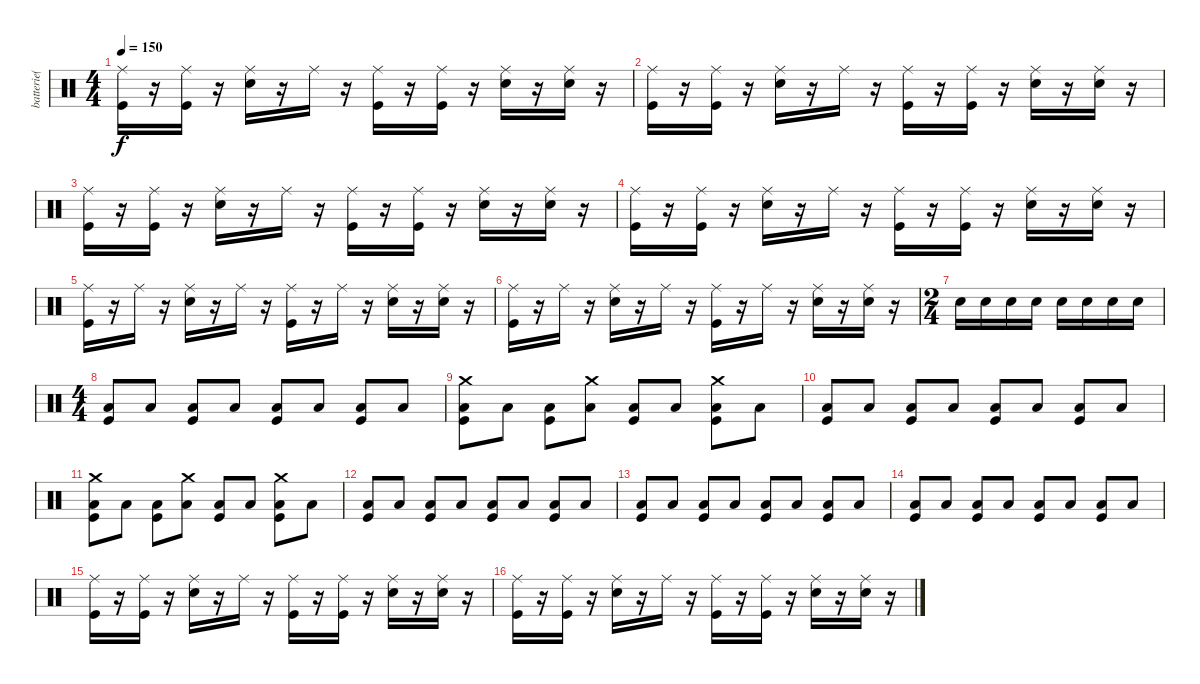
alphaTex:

\track ("batterie(  Mark Cain )" "batterie( ") {instrument percussion}
\staff {score}
\articulation defaults
\ts (4 4)
\tempo 150
\clef neutral
\ks c
("Ride (middle)" "Kick (hit)").16{dy f} r.16 ("Ride (middle)" "Kick (hit)").16 r.16 ("Ride (middle)" "Snare (hit) 2").16 r.16 "Ride (middle)".16 r.16 ("Ride (middle)" "Kick (hit)").16 r.16 ("Ride (middle)" "Kick (hit)").16 r.16 ("Ride (middle)" "Snare (hit) 2").16 r.16 ("Ride (middle)" "Snare (hit) 2").16 r.16 |
("Ride (middle)" "Kick (hit)").16 r.16 ("Ride (middle)" "Kick (hit)").16 r.16 ("Ride (middle)" "Snare (hit) 2").16 r.16 "Ride (middle)".16 r.16 ("Ride (middle)" "Kick (hit)").16 r.16 ("Ride (middle)" "Kick (hit)").16 r.16 ("Ride (middle)" "Snare (hit) 2").16 r.16 ("Ride (middle)" "Snare (hit) 2").16 r.16 |
("Ride (middle)" "Kick (hit)").16 r.16 ("Ride (middle)" "Kick (hit)").16 r.16 ("Ride (middle)" "Snare (hit) 2").16 r.16 "Ride (middle)".16 r.16 ("Ride (middle)" "Kick (hit)").16 r.16 ("Ride (middle)" "Kick (hit)").16 r.16 ("Ride (middle)" "Snare (hit) 2").16 r.16 ("Ride (middle)" "Snare (hit) 2").16 r.16 |
("Ride (middle)" "Kick (hit)").16 r.16 ("Ride (middle)" "Kick (hit)").16 r.16 ("Ride (middle)" "Snare (hit) 2").16 r.16 "Ride (middle)".16 r.16 ("Ride (middle)" "Kick (hit)").16 r.16 ("Ride (middle)" "Kick (hit)").16 r.16 ("Ride (middle)" "Snare (hit) 2").16 r.16 ("Ride (middle)" "Snare (hit) 2").16 r.16 |
("Ride (middle)" "Kick (hit)").16 r.16 "Ride (middle)".16 r.16 ("Ride (middle)" "Snare (hit) 2").16 r.16 "Ride (middle)".16 r.16 ("Ride (middle)" "Kick (hit)").16 r.16 "Ride (middle)".16 r.16 ("Ride (middle)" "Snare (hit) 2").16 r.16 ("Ride (middle)" "Snare (hit) 2").16 r.16 |
("Ride (middle)" "Kick (hit)").16 r.16 "Ride (middle)".16 r.16 ("Ride (middle)" "Snare (hit) 2").16 r.16 "Ride (middle)".16 r.16 ("Ride (middle)" "Kick (hit)").16 r.16 "Ride (middle)".16 r.16 ("Ride (middle)" "Snare (hit) 2").16 r.16 ("Ride (middle)" "Snare (hit) 2").16 r.16 |
\ts (2 4)
"Snare (hit) 2".16 "Snare (hit) 2".16 "Snare (hit) 2".16 "Snare (hit) 2".16 "Snare (hit) 2".16 "Snare (hit) 2".16 "Snare (hit) 2".16 "Snare (hit) 2".16 |
\ts (4 4)
("Low Floor Tom (hit)" "Kick (hit)").8 "Low Floor Tom (hit)".8 ("Low Floor Tom (hit)" "Kick (hit)").8 "Low Floor Tom (hit)".8 ("Low Floor Tom (hit)" "Kick (hit)").8 "Low Floor Tom (hit)".8 ("Low Floor Tom (hit)" "Kick (hit)").8 "Low Floor Tom (hit)".8 |
("Crash medium (hit)" "Low Floor Tom (hit)" "Kick (hit)").8 "Low Floor Tom (hit)".8 ("Low Floor Tom (hit)" "Kick (hit)").8 ("Crash medium (hit)" "Low Floor Tom (hit)").8 ("Low Floor Tom (hit)" "Kick (hit)").8 "Low Floor Tom (hit)".8 ("Crash medium (hit)" "Low Floor Tom (hit)" "Kick (hit)").8 "Low Floor Tom (hit)".8 |
("Low Floor Tom (hit)" "Kick (hit)").8 "Low Floor Tom (hit)".8 ("Low Floor Tom (hit)" "Kick (hit)").8 "Low Floor Tom (hit)".8 ("Low Floor Tom (hit)" "Kick (hit)").8 "Low Floor Tom (hit)".8 ("Low Floor Tom (hit)" "Kick (hit)").8 "Low Floor Tom (hit)".8 |
("Crash medium (hit)" "Low Floor Tom (hit)" "Kick (hit)").8 "Low Floor Tom (hit)".8 ("Low Floor Tom (hit)" "Kick (hit)").8 ("Crash medium (hit)" "Low Floor Tom (hit)").8 ("Low Floor Tom (hit)" "Kick (hit)").8 "Low Floor Tom (hit)".8 ("Crash medium (hit)" "Low Floor Tom (hit)" "Kick (hit)").8 "Low Floor Tom (hit)".8 |
("Low Floor Tom (hit)" "Kick (hit)").8 "Low Floor Tom (hit)".8 ("Low Floor Tom (hit)" "Kick (hit)").8 "Low Floor Tom (hit)".8 ("Low Floor Tom (hit)" "Kick (hit)").8 "Low Floor Tom (hit)".8 ("Low Floor Tom (hit)" "Kick (hit)").8 "Low Floor Tom (hit)".8 |
("Low Floor Tom (hit)" "Kick (hit)").8 "Low Floor Tom (hit)".8 ("Low Floor Tom (hit)" "Kick (hit)").8 "Low Floor Tom (hit)".8 ("Low Floor Tom (hit)" "Kick (hit)").8 "Low Floor Tom (hit)".8 ("Low Floor Tom (hit)" "Kick (hit)").8 "Low Floor Tom (hit)".8 |
("Low Floor Tom (hit)" "Kick (hit)").8 "Low Floor Tom (hit)".8 ("Low Floor Tom (hit)" "Kick (hit)").8 "Low Floor Tom (hit)".8 ("Low Floor Tom (hit)" "Kick (hit)").8 "Low Floor Tom (hit)".8 ("Low Floor Tom (hit)" "Kick (hit)").8 "Low Floor Tom (hit)".8 |
("Ride (middle)" "Kick (hit)").16 r.16 ("Ride (middle)" "Kick (hit)").16 r.16 ("Ride (middle)" "Snare (hit) 2").16 r.16 "Ride (middle)".16 r.16 ("Ride (middle)" "Kick (hit)").16 r.16 ("Ride (middle)" "Kick (hit)").16 r.16 ("Ride (middle)" "Snare (hit) 2").16 r.16 ("Ride (middle)" "Snare (hit) 2").16 r.16 |
("Ride (middle)" "Kick (hit)").16 r.16 ("Ride (middle)" "Kick (hit)").16 r.16 ("Ride (middle)" "Snare (hit) 2").16 r.16 "Ride (middle)".16 r.16 ("Ride (middle)" "Kick (hit)").16 r.16 ("Ride (middle)" "Kick (hit)").16 r.16 ("Ride (middle)" "Snare (hit) 2").16 r.16 ("Ride (middle)" "Snare (hit) 2").16 r.16
